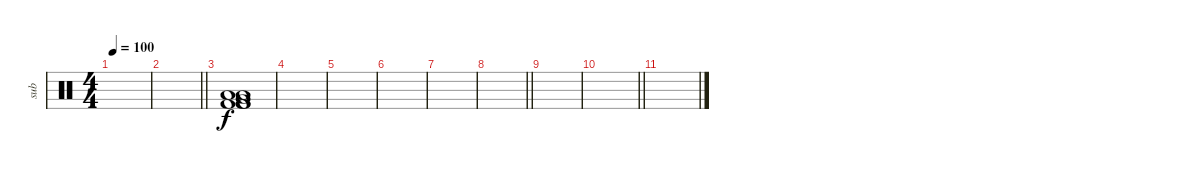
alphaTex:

\track ("sub" "sub") {instrument percussion}
\staff {score}
\articulation defaults
\ts (4 4)
\tempo 100
\clef neutral
\ks c
|
\barLineRight lightlight
|
\section ("" "")
("Low Floor Tom (hit)" "Low Floor Tom (hit)" "Very Low Tom (hit)" "Kick (hit) 2" "Kick (hit) 2" "Kick (hit) 2").1 |
|
|
|
|
\barLineRight lightlight
|
|
\barLineRight lightlight
|
\section ("" "")
